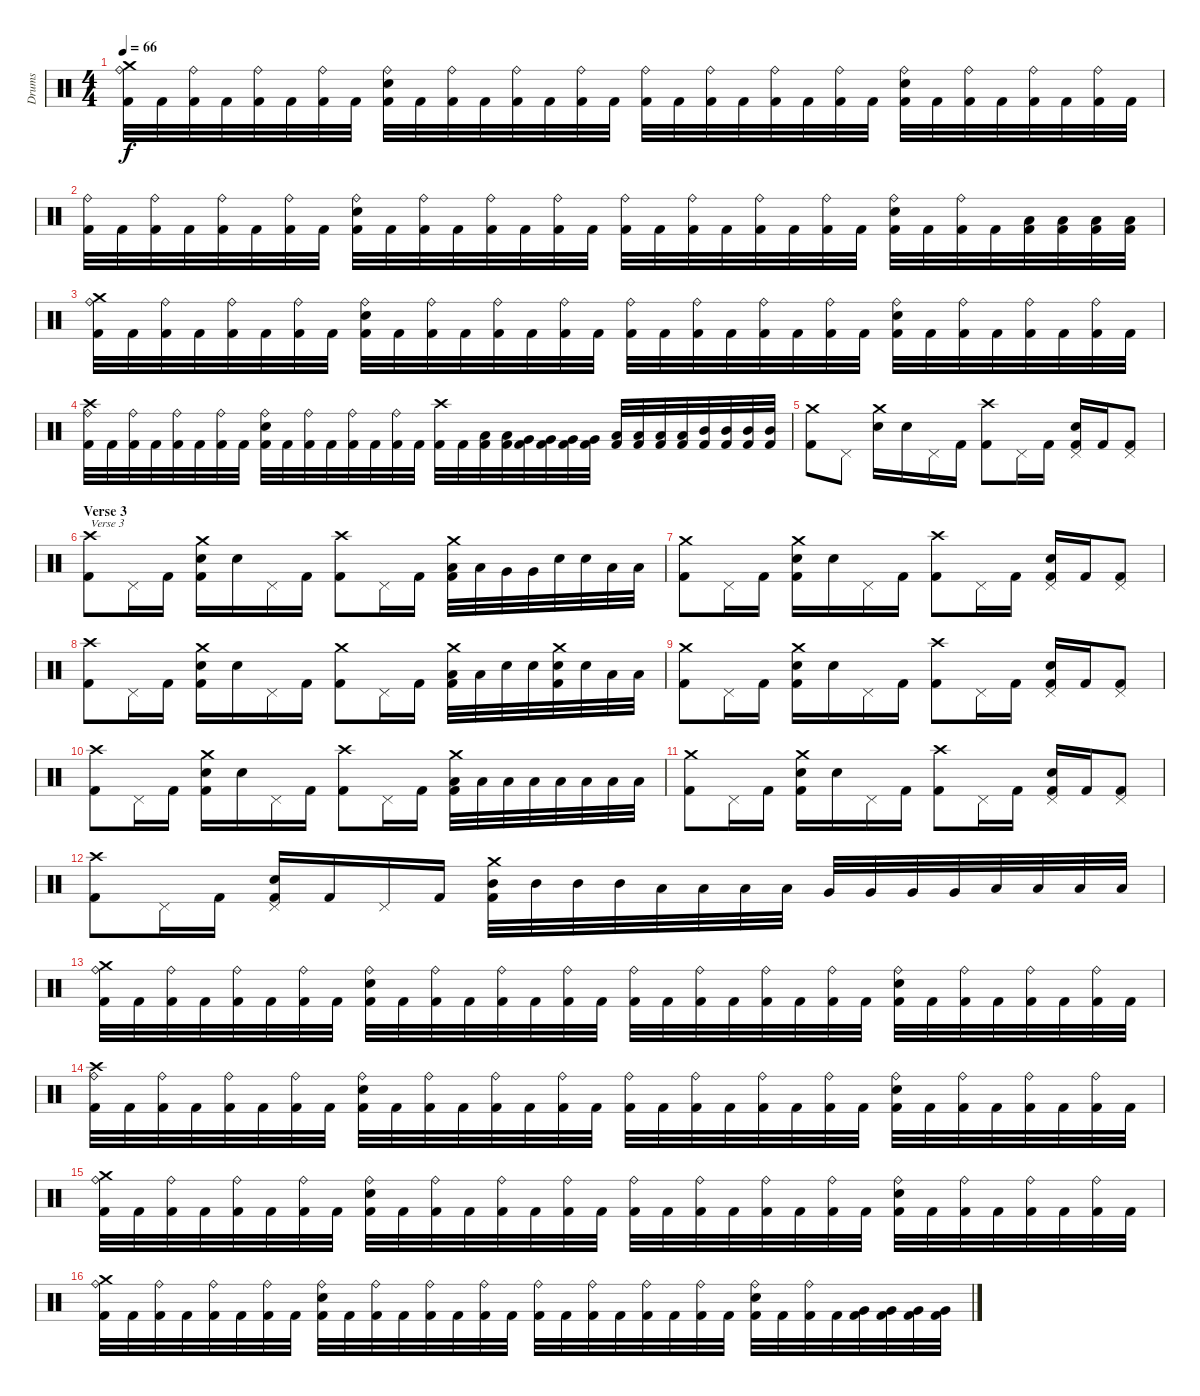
\track ("Drums" "Drums") {instrument percussion}
\staff {score}
\articulation defaults
\ts (4 4)
\tempo 66
\clef neutral
\ks c
("Crash medium (hit)" "Ride (bell)" "Kick (hit) 2").32{dy f} "Kick (hit) 2".32 ("Ride (bell)" "Kick (hit) 2").32 "Kick (hit) 2".32 ("Ride (bell)" "Kick (hit) 2").32 "Kick (hit) 2".32 ("Ride (bell)" "Kick (hit) 2").32 "Kick (hit) 2".32 ("Ride (bell)" "Electric Snare (hit)" "Kick (hit) 2").32 "Kick (hit) 2".32 ("Ride (bell)" "Kick (hit) 2").32 "Kick (hit) 2".32 ("Ride (bell)" "Kick (hit) 2").32 "Kick (hit) 2".32 ("Ride (bell)" "Kick (hit) 2").32 "Kick (hit) 2".32 ("Ride (bell)" "Kick (hit) 2").32 "Kick (hit) 2".32 ("Ride (bell)" "Kick (hit) 2").32 "Kick (hit) 2".32 ("Ride (bell)" "Kick (hit) 2").32 "Kick (hit) 2".32 ("Ride (bell)" "Kick (hit) 2").32 "Kick (hit) 2".32 ("Ride (bell)" "Electric Snare (hit)" "Kick (hit) 2").32 "Kick (hit) 2".32 ("Ride (bell)" "Kick (hit) 2").32 "Kick (hit) 2".32 ("Ride (bell)" "Kick (hit) 2").32 "Kick (hit) 2".32 ("Ride (bell)" "Kick (hit) 2").32 "Kick (hit) 2".32 |
("Ride (bell)" "Kick (hit) 2").32 "Kick (hit) 2".32 ("Ride (bell)" "Kick (hit) 2").32 "Kick (hit) 2".32 ("Ride (bell)" "Kick (hit) 2").32 "Kick (hit) 2".32 ("Ride (bell)" "Kick (hit) 2").32 "Kick (hit) 2".32 ("Ride (bell)" "Electric Snare (hit)" "Kick (hit) 2").32 "Kick (hit) 2".32 ("Ride (bell)" "Kick (hit) 2").32 "Kick (hit) 2".32 ("Ride (bell)" "Kick (hit) 2").32 "Kick (hit) 2".32 ("Ride (bell)" "Kick (hit) 2").32 "Kick (hit) 2".32 ("Ride (bell)" "Kick (hit) 2").32 "Kick (hit) 2".32 ("Ride (bell)" "Kick (hit) 2").32 "Kick (hit) 2".32 ("Ride (bell)" "Kick (hit) 2").32 "Kick (hit) 2".32 ("Ride (bell)" "Kick (hit) 2").32 "Kick (hit) 2".32 ("Ride (bell)" "Electric Snare (hit)" "Kick (hit) 2").32 "Kick (hit) 2".32 ("Ride (bell)" "Kick (hit) 2").32 "Kick (hit) 2".32 ("Low Floor Tom (hit)" "Kick (hit) 2").32 ("Low Floor Tom (hit)" "Kick (hit) 2").32 ("Low Floor Tom (hit)" "Kick (hit) 2").32 ("Low Floor Tom (hit)" "Kick (hit) 2").32 |
("Crash medium (hit)" "Ride (bell)" "Kick (hit) 2").32 "Kick (hit) 2".32 ("Ride (bell)" "Kick (hit) 2").32 "Kick (hit) 2".32 ("Ride (bell)" "Kick (hit) 2").32 "Kick (hit) 2".32 ("Ride (bell)" "Kick (hit) 2").32 "Kick (hit) 2".32 ("Ride (bell)" "Electric Snare (hit)" "Kick (hit) 2").32 "Kick (hit) 2".32 ("Ride (bell)" "Kick (hit) 2").32 "Kick (hit) 2".32 ("Ride (bell)" "Kick (hit) 2").32 "Kick (hit) 2".32 ("Ride (bell)" "Kick (hit) 2").32 "Kick (hit) 2".32 ("Ride (bell)" "Kick (hit) 2").32 "Kick (hit) 2".32 ("Ride (bell)" "Kick (hit) 2").32 "Kick (hit) 2".32 ("Ride (bell)" "Kick (hit) 2").32 "Kick (hit) 2".32 ("Ride (bell)" "Kick (hit) 2").32 "Kick (hit) 2".32 ("Ride (bell)" "Electric Snare (hit)" "Kick (hit) 2").32 "Kick (hit) 2".32 ("Ride (bell)" "Kick (hit) 2").32 "Kick (hit) 2".32 ("Ride (bell)" "Kick (hit) 2").32 "Kick (hit) 2".32 ("Ride (bell)" "Kick (hit) 2").32 "Kick (hit) 2".32 |
("Crash high (hit)" "Ride (bell)" "Kick (hit) 2").32 "Kick (hit) 2".32 ("Ride (bell)" "Kick (hit) 2").32 "Kick (hit) 2".32 ("Ride (bell)" "Kick (hit) 2").32 "Kick (hit) 2".32 ("Ride (bell)" "Kick (hit) 2").32 "Kick (hit) 2".32 ("Ride (bell)" "Electric Snare (hit)" "Kick (hit) 2").32 "Kick (hit) 2".32 ("Ride (bell)" "Kick (hit) 2").32 "Kick (hit) 2".32 ("Ride (bell)" "Kick (hit) 2").32 "Kick (hit) 2".32 ("Ride (bell)" "Kick (hit) 2").32 "Kick (hit) 2".32 ("Crash high (hit)" "Kick (hit) 2").32 "Kick (hit) 2".32 ("Low Floor Tom (hit)" "Kick (hit) 2").32 ("Low Floor Tom (hit)" "Kick (hit) 2").32 ("Very Low Tom (hit)" "Kick (hit) 2").32 ("Very Low Tom (hit)" "Kick (hit) 2").32 ("Very Low Tom (hit)" "Kick (hit) 2").32 ("Very Low Tom (hit)" "Kick (hit) 2").32 ("Low Tom (hit)" "Kick (hit) 2").32 ("Low Tom (hit)" "Kick (hit) 2").32 ("Low Tom (hit)" "Kick (hit) 2").32 ("Low Tom (hit)" "Kick (hit) 2").32 ("Mid Tom (hit)" "Kick (hit) 2").32 ("Mid Tom (hit)" "Kick (hit) 2").32 ("Mid Tom (hit)" "Kick (hit) 2").32 ("Mid Tom (hit)" "Kick (hit) 2").32 |
("Crash medium (hit)" "Kick (hit) 2").8 "Pedal Hi-Hat (hit)".8 ("Crash medium (hit)" "Electric Snare (hit)").16 "Electric Snare (hit)".16 "Pedal Hi-Hat (hit)".16 "Kick (hit) 2".16 ("Crash high (hit)" "Kick (hit) 2").8 "Pedal Hi-Hat (hit)".16 "Kick (hit) 2".16 ("Pedal Hi-Hat (hit)" "Electric Snare (hit)" "Kick (hit) 2").16 "Kick (hit) 2".16 ("Pedal Hi-Hat (hit)" "Kick (hit) 2").8 |
\section ("" "Verse 3")
("Crash high (hit)" "Kick (hit) 2").8{txt "Verse 3"} "Pedal Hi-Hat (hit)".16 "Kick (hit) 2".16 ("Crash medium (hit)" "Electric Snare (hit)" "Kick (hit) 2").16 "Electric Snare (hit)".16 "Pedal Hi-Hat (hit)".16 "Kick (hit) 2".16 ("Crash high (hit)" "Kick (hit) 2").8 "Pedal Hi-Hat (hit)".16 "Kick (hit) 2".16 ("Crash medium (hit)" "Low Tom (hit)" "Kick (hit) 2").32 "Low Tom (hit)".32 "Very Low Tom (hit)".32 "Very Low Tom (hit)".32 "Electric Snare (hit)".32 "Electric Snare (hit)".32 "Low Floor Tom (hit)".32 "Low Floor Tom (hit)".32 |
("Crash medium (hit)" "Kick (hit) 2").8 "Pedal Hi-Hat (hit)".16 "Kick (hit) 2".16 ("Crash medium (hit)" "Electric Snare (hit)" "Kick (hit) 2").16 "Electric Snare (hit)".16 "Pedal Hi-Hat (hit)".16 "Kick (hit) 2".16 ("Crash high (hit)" "Kick (hit) 2").8 "Pedal Hi-Hat (hit)".16 "Kick (hit) 2".16 ("Pedal Hi-Hat (hit)" "Electric Snare (hit)" "Kick (hit) 2").16 "Kick (hit) 2".16 ("Pedal Hi-Hat (hit)" "Kick (hit) 2").8 |
("Crash high (hit)" "Kick (hit) 2").8 "Pedal Hi-Hat (hit)".16 "Kick (hit) 2".16 ("Crash medium (hit)" "Electric Snare (hit)" "Kick (hit) 2").16 "Electric Snare (hit)".16 "Pedal Hi-Hat (hit)".16 "Kick (hit) 2".16 ("Crash medium (hit)" "Kick (hit) 2").8 "Pedal Hi-Hat (hit)".16 "Kick (hit) 2".16 ("Crash medium (hit)" "Low Tom (hit)" "Kick (hit) 2").32 "Low Tom (hit)".32 "Electric Snare (hit)".32 "Electric Snare (hit)".32 ("Crash medium (hit)" "Electric Snare (hit)" "Kick (hit) 2").32 "Electric Snare (hit)".32 "Low Floor Tom (hit)".32 "Low Floor Tom (hit)".32 |
("Crash medium (hit)" "Kick (hit) 2").8 "Pedal Hi-Hat (hit)".16 "Kick (hit) 2".16 ("Crash medium (hit)" "Electric Snare (hit)" "Kick (hit) 2").16 "Electric Snare (hit)".16 "Pedal Hi-Hat (hit)".16 "Kick (hit) 2".16 ("Crash high (hit)" "Kick (hit) 2").8 "Pedal Hi-Hat (hit)".16 "Kick (hit) 2".16 ("Pedal Hi-Hat (hit)" "Electric Snare (hit)" "Kick (hit) 2").16 "Kick (hit) 2".16 ("Pedal Hi-Hat (hit)" "Kick (hit) 2").8 |
("Crash high (hit)" "Kick (hit) 2").8 "Pedal Hi-Hat (hit)".16 "Kick (hit) 2".16 ("Crash medium (hit)" "Electric Snare (hit)" "Kick (hit) 2").16 "Electric Snare (hit)".16 "Pedal Hi-Hat (hit)".16 "Kick (hit) 2".16 ("Crash high (hit)" "Kick (hit) 2").8 "Pedal Hi-Hat (hit)".16 "Kick (hit) 2".16 ("Crash medium (hit)" "Low Tom (hit)" "Kick (hit) 2").32 "Low Tom (hit)".32 "Low Floor Tom (hit)".32 "Low Floor Tom (hit)".32 "Low Floor Tom (hit)".32 "Low Floor Tom (hit)".32 "Low Floor Tom (hit)".32 "Low Floor Tom (hit)".32 |
("Crash medium (hit)" "Kick (hit) 2").8 "Pedal Hi-Hat (hit)".16 "Kick (hit) 2".16 ("Crash medium (hit)" "Electric Snare (hit)" "Kick (hit) 2").16 "Electric Snare (hit)".16 "Pedal Hi-Hat (hit)".16 "Kick (hit) 2".16 ("Crash high (hit)" "Kick (hit) 2").8 "Pedal Hi-Hat (hit)".16 "Kick (hit) 2".16 ("Pedal Hi-Hat (hit)" "Electric Snare (hit)" "Kick (hit) 2").16 "Kick (hit) 2".16 ("Pedal Hi-Hat (hit)" "Kick (hit) 2").8 |
("Crash high (hit)" "Kick (hit) 2").8 "Pedal Hi-Hat (hit)".16 "Kick (hit) 2".16 ("Pedal Hi-Hat (hit)" "Electric Snare (hit)" "Kick (hit) 2").16 "Kick (hit) 2".16 "Pedal Hi-Hat (hit)".16 "Kick (hit) 2".16 ("Crash medium (hit)" "Mid Tom (hit)" "Kick (hit) 2").32 "Mid Tom (hit)".32 "Mid Tom (hit)".32 "Mid Tom (hit)".32 "Low Tom (hit)".32 "Low Tom (hit)".32 "Low Tom (hit)".32 "Low Tom (hit)".32 "Very Low Tom (hit)".32 "Very Low Tom (hit)".32 "Very Low Tom (hit)".32 "Very Low Tom (hit)".32 "Low Floor Tom (hit)".32 "Low Floor Tom (hit)".32 "Low Floor Tom (hit)".32 "Low Floor Tom (hit)".32 |
("Crash medium (hit)" "Ride (bell)" "Kick (hit) 2").32 "Kick (hit) 2".32 ("Ride (bell)" "Kick (hit) 2").32 "Kick (hit) 2".32 ("Ride (bell)" "Kick (hit) 2").32 "Kick (hit) 2".32 ("Ride (bell)" "Kick (hit) 2").32 "Kick (hit) 2".32 ("Ride (bell)" "Electric Snare (hit)" "Kick (hit) 2").32 "Kick (hit) 2".32 ("Ride (bell)" "Kick (hit) 2").32 "Kick (hit) 2".32 ("Ride (bell)" "Kick (hit) 2").32 "Kick (hit) 2".32 ("Ride (bell)" "Kick (hit) 2").32 "Kick (hit) 2".32 ("Ride (bell)" "Kick (hit) 2").32 "Kick (hit) 2".32 ("Ride (bell)" "Kick (hit) 2").32 "Kick (hit) 2".32 ("Ride (bell)" "Kick (hit) 2").32 "Kick (hit) 2".32 ("Ride (bell)" "Kick (hit) 2").32 "Kick (hit) 2".32 ("Ride (bell)" "Electric Snare (hit)" "Kick (hit) 2").32 "Kick (hit) 2".32 ("Ride (bell)" "Kick (hit) 2").32 "Kick (hit) 2".32 ("Ride (bell)" "Kick (hit) 2").32 "Kick (hit) 2".32 ("Ride (bell)" "Kick (hit) 2").32 "Kick (hit) 2".32 |
("Crash high (hit)" "Ride (bell)" "Kick (hit) 2").32 "Kick (hit) 2".32 ("Ride (bell)" "Kick (hit) 2").32 "Kick (hit) 2".32 ("Ride (bell)" "Kick (hit) 2").32 "Kick (hit) 2".32 ("Ride (bell)" "Kick (hit) 2").32 "Kick (hit) 2".32 ("Ride (bell)" "Electric Snare (hit)" "Kick (hit) 2").32 "Kick (hit) 2".32 ("Ride (bell)" "Kick (hit) 2").32 "Kick (hit) 2".32 ("Ride (bell)" "Kick (hit) 2").32 "Kick (hit) 2".32 ("Ride (bell)" "Kick (hit) 2").32 "Kick (hit) 2".32 ("Ride (bell)" "Kick (hit) 2").32 "Kick (hit) 2".32 ("Ride (bell)" "Kick (hit) 2").32 "Kick (hit) 2".32 ("Ride (bell)" "Kick (hit) 2").32 "Kick (hit) 2".32 ("Ride (bell)" "Kick (hit) 2").32 "Kick (hit) 2".32 ("Ride (bell)" "Electric Snare (hit)" "Kick (hit) 2").32 "Kick (hit) 2".32 ("Ride (bell)" "Kick (hit) 2").32 "Kick (hit) 2".32 ("Ride (bell)" "Kick (hit) 2").32 "Kick (hit) 2".32 ("Ride (bell)" "Kick (hit) 2").32 "Kick (hit) 2".32 |
("Crash medium (hit)" "Ride (bell)" "Kick (hit) 2").32 "Kick (hit) 2".32 ("Ride (bell)" "Kick (hit) 2").32 "Kick (hit) 2".32 ("Ride (bell)" "Kick (hit) 2").32 "Kick (hit) 2".32 ("Ride (bell)" "Kick (hit) 2").32 "Kick (hit) 2".32 ("Ride (bell)" "Electric Snare (hit)" "Kick (hit) 2").32 "Kick (hit) 2".32 ("Ride (bell)" "Kick (hit) 2").32 "Kick (hit) 2".32 ("Ride (bell)" "Kick (hit) 2").32 "Kick (hit) 2".32 ("Ride (bell)" "Kick (hit) 2").32 "Kick (hit) 2".32 ("Ride (bell)" "Kick (hit) 2").32 "Kick (hit) 2".32 ("Ride (bell)" "Kick (hit) 2").32 "Kick (hit) 2".32 ("Ride (bell)" "Kick (hit) 2").32 "Kick (hit) 2".32 ("Ride (bell)" "Kick (hit) 2").32 "Kick (hit) 2".32 ("Ride (bell)" "Electric Snare (hit)" "Kick (hit) 2").32 "Kick (hit) 2".32 ("Ride (bell)" "Kick (hit) 2").32 "Kick (hit) 2".32 ("Ride (bell)" "Kick (hit) 2").32 "Kick (hit) 2".32 ("Ride (bell)" "Kick (hit) 2").32 "Kick (hit) 2".32 |
("Crash medium (hit)" "Ride (bell)" "Kick (hit) 2").32 "Kick (hit) 2".32 ("Ride (bell)" "Kick (hit) 2").32 "Kick (hit) 2".32 ("Ride (bell)" "Kick (hit) 2").32 "Kick (hit) 2".32 ("Ride (bell)" "Kick (hit) 2").32 "Kick (hit) 2".32 ("Ride (bell)" "Electric Snare (hit)" "Kick (hit) 2").32 "Kick (hit) 2".32 ("Ride (bell)" "Kick (hit) 2").32 "Kick (hit) 2".32 ("Ride (bell)" "Kick (hit) 2").32 "Kick (hit) 2".32 ("Ride (bell)" "Kick (hit) 2").32 "Kick (hit) 2".32 ("Ride (bell)" "Kick (hit) 2").32 "Kick (hit) 2".32 ("Ride (bell)" "Kick (hit) 2").32 "Kick (hit) 2".32 ("Ride (bell)" "Kick (hit) 2").32 "Kick (hit) 2".32 ("Ride (bell)" "Kick (hit) 2").32 "Kick (hit) 2".32 ("Ride (bell)" "Electric Snare (hit)" "Kick (hit) 2").32 "Kick (hit) 2".32 ("Ride (bell)" "Kick (hit) 2").32 "Kick (hit) 2".32 ("Very Low Tom (hit)" "Kick (hit) 2").32 ("Very Low Tom (hit)" "Kick (hit) 2").32 ("Very Low Tom (hit)" "Kick (hit) 2").32 ("Very Low Tom (hit)" "Kick (hit) 2").32
